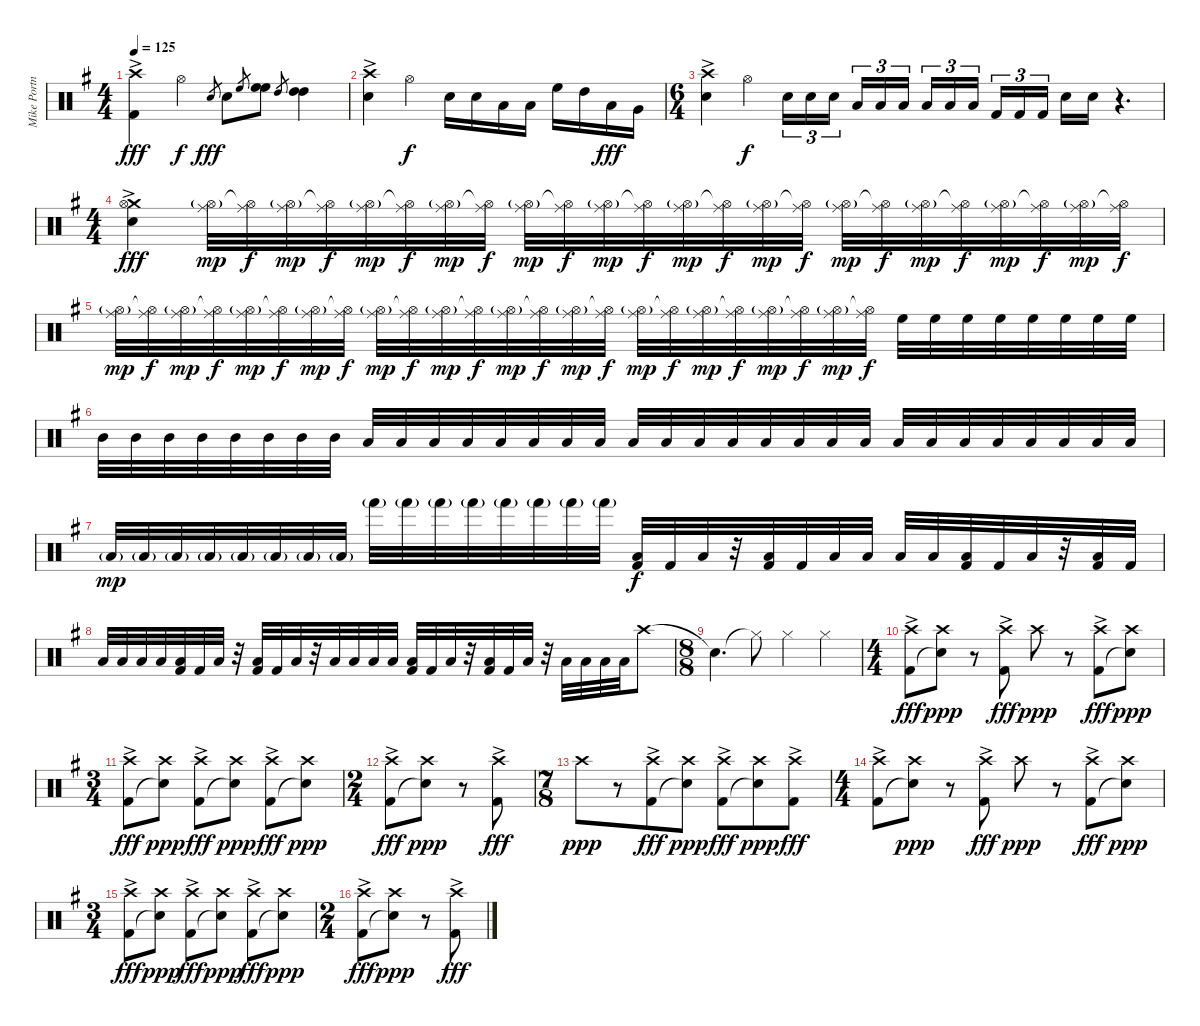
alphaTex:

\track ("Mike Portnoy - Drums" "Mike Portn") {instrument percussion}
\staff {score}
\articulation defaults
\ts (4 4)
\tempo 125
\clef neutral
\ks g
("Crash high (hit)"{ac} "Kick (hit) 2").4{dy fff volume 14} "Hi-Hat (open)".4{dy f} "Electric Snare (hit)".8{gr dy fff} "Electric Snare (hit)".8 "High Floor Tom (hit)".8{gr} ("High Floor Tom (hit)" "High Floor Tom (hit)").8 "High Tom (hit)".8{gr} ("High Tom (hit)" "High Tom (hit)").4 |
("Crash high (hit)"{ac} "Snare (hit) 2").4 "Hi-Hat (open)".4{dy f} "Electric Snare (hit)".16 "Electric Snare (hit)".16 "Low Tom (hit)".16 "Low Tom (hit)".16 "High Floor Tom (hit)".16 "High Tom (hit)".16 "Low Tom (hit)".16{dy fff} "Very Low Tom (hit)".16 |
\ts (6 4)
("Crash high (hit)"{ac} "Snare (hit) 2").4 "Hi-Hat (open)".4{dy f} "Snare (hit) 2".16{tu (3 2)} "Snare (hit) 2".16{tu (3 2)} "Snare (hit) 2".16{tu (3 2) beam splitsecondary} "Low Tom (hit)".16{tu (3 2)} "Low Tom (hit)".16{tu (3 2)} "Low Tom (hit)".16{tu (3 2)} "Low Floor Tom (hit)".16{tu (3 2)} "Low Floor Tom (hit)".16{tu (3 2)} "Low Floor Tom (hit)".16{tu (3 2) beam splitsecondary} "Kick (hit) 2".16{tu (3 2)} "Kick (hit) 2".16{tu (3 2)} "Kick (hit) 2".16{tu (3 2) beam splitsecondary} "Snare (hit) 2".16 "Snare (hit) 2".16 r.4{d} |
\ts (4 4)
("Crash medium (hit)"{ac} "Hi-Hat (open)" "Snare (hit) 2").4{dy fff} ("Ride (middle)" "Hi-Hat (open)"{g}).32{dy mp volume 10} ("Ride (middle)" "Hi-Hat (open)"{t}).32{dy f} ("Ride (middle)" "Hi-Hat (open)"{g}).32{dy mp} ("Ride (middle)" "Hi-Hat (open)"{t}).32{dy f} ("Ride (middle)" "Hi-Hat (open)"{g}).32{dy mp} ("Ride (middle)" "Hi-Hat (open)"{t}).32{dy f} ("Ride (middle)" "Hi-Hat (open)"{g}).32{dy mp} ("Ride (middle)" "Hi-Hat (open)"{t}).32{dy f} ("Ride (middle)" "Hi-Hat (open)"{g}).32{dy mp} ("Ride (middle)" "Hi-Hat (open)"{t}).32{dy f} ("Ride (middle)" "Hi-Hat (open)"{g}).32{dy mp} ("Ride (middle)" "Hi-Hat (open)"{t}).32{dy f} ("Ride (middle)" "Hi-Hat (open)"{g}).32{dy mp} ("Ride (middle)" "Hi-Hat (open)"{t}).32{dy f} ("Ride (middle)" "Hi-Hat (open)"{g}).32{dy mp} ("Ride (middle)" "Hi-Hat (open)"{t}).32{dy f} ("Ride (middle)" "Hi-Hat (open)"{g}).32{dy mp} ("Ride (middle)" "Hi-Hat (open)"{t}).32{dy f} ("Ride (middle)" "Hi-Hat (open)"{g}).32{dy mp} ("Ride (middle)" "Hi-Hat (open)"{t}).32{dy f} ("Ride (middle)" "Hi-Hat (open)"{g}).32{dy mp} ("Ride (middle)" "Hi-Hat (open)"{t}).32{dy f} ("Ride (middle)" "Hi-Hat (open)"{g}).32{dy mp} ("Ride (middle)" "Hi-Hat (open)"{t}).32{dy f} |
("Ride (middle)" "Hi-Hat (open)"{g}).32{dy mp} ("Ride (middle)" "Hi-Hat (open)"{t}).32{dy f} ("Ride (middle)" "Hi-Hat (open)"{g}).32{dy mp} ("Ride (middle)" "Hi-Hat (open)"{t}).32{dy f} ("Ride (middle)" "Hi-Hat (open)"{g}).32{dy mp} ("Ride (middle)" "Hi-Hat (open)"{t}).32{dy f} ("Ride (middle)" "Hi-Hat (open)"{g}).32{dy mp} ("Ride (middle)" "Hi-Hat (open)"{t}).32{dy f} ("Ride (middle)" "Hi-Hat (open)"{g}).32{dy mp} ("Ride (middle)" "Hi-Hat (open)"{t}).32{dy f} ("Ride (middle)" "Hi-Hat (open)"{g}).32{dy mp} ("Ride (middle)" "Hi-Hat (open)"{t}).32{dy f} ("Ride (middle)" "Hi-Hat (open)"{g}).32{dy mp} ("Ride (middle)" "Hi-Hat (open)"{t}).32{dy f} ("Ride (middle)" "Hi-Hat (open)"{g}).32{dy mp} ("Ride (middle)" "Hi-Hat (open)"{t}).32{dy f} ("Ride (middle)" "Hi-Hat (open)"{g}).32{dy mp} ("Ride (middle)" "Hi-Hat (open)"{t}).32{dy f} ("Ride (middle)" "Hi-Hat (open)"{g}).32{dy mp} ("Ride (middle)" "Hi-Hat (open)"{t}).32{dy f} ("Ride (middle)" "Hi-Hat (open)"{g}).32{dy mp} ("Ride (middle)" "Hi-Hat (open)"{t}).32{dy f} ("Ride (middle)" "Hi-Hat (open)"{g}).32{dy mp} ("Ride (middle)" "Hi-Hat (open)"{t}).32{dy f} "High Floor Tom (hit)".32 "High Floor Tom (hit)".32 "High Floor Tom (hit)".32 "High Floor Tom (hit)".32 "High Floor Tom (hit)".32 "High Floor Tom (hit)".32 "High Floor Tom (hit)".32 "High Floor Tom (hit)".32 |
"Mid Tom (hit)".32 "Mid Tom (hit)".32 "Mid Tom (hit)".32 "Mid Tom (hit)".32 "Mid Tom (hit)".32 "Mid Tom (hit)".32 "Mid Tom (hit)".32 "Mid Tom (hit)".32 "Low Tom (hit)".32 "Low Tom (hit)".32 "Low Tom (hit)".32 "Low Tom (hit)".32 "Low Tom (hit)".32 "Low Tom (hit)".32 "Low Tom (hit)".32 "Low Tom (hit)".32 "Low Floor Tom (hit)".32 "Low Floor Tom (hit)".32 "Low Floor Tom (hit)".32 "Low Floor Tom (hit)".32 "Low Floor Tom (hit)".32 "Low Floor Tom (hit)".32 "Low Floor Tom (hit)".32 "Low Floor Tom (hit)".32 "Low Floor Tom (hit)".32 "Low Floor Tom (hit)".32 "Low Floor Tom (hit)".32 "Low Floor Tom (hit)".32 "Low Floor Tom (hit)".32 "Low Floor Tom (hit)".32 "Low Floor Tom (hit)".32 "Low Floor Tom (hit)".32 |
"Low Floor Tom (hit)"{g}.32{dy mp} "Low Floor Tom (hit)"{g}.32 "Low Floor Tom (hit)"{g}.32 "Low Floor Tom (hit)"{g}.32 "Low Floor Tom (hit)"{g}.32 "Low Floor Tom (hit)"{g}.32 "Low Floor Tom (hit)"{g}.32 "Low Floor Tom (hit)"{g}.32 "Hand (hit)"{g}.32 "Hand (hit)"{g}.32 "Hand (hit)"{g}.32 "Hand (hit)"{g}.32 "Hand (hit)"{g}.32 "Hand (hit)"{g}.32 "Hand (hit)"{g}.32 "Hand (hit)"{g}.32 ("Low Floor Tom (hit)" "Kick (hit) 2").32{dy f} "Kick (hit) 2".32 "Low Floor Tom (hit)".32 r.32 ("Low Floor Tom (hit)" "Kick (hit) 2").32 "Kick (hit) 2".32 "Low Floor Tom (hit)".32 "Low Floor Tom (hit)".32 "Low Floor Tom (hit)".32 "Low Floor Tom (hit)".32 ("Low Floor Tom (hit)" "Kick (hit) 2").32 "Kick (hit) 2".32 "Low Floor Tom (hit)".32 r.32 ("Low Floor Tom (hit)" "Kick (hit) 2").32 "Kick (hit) 2".32 |
"Low Floor Tom (hit)".32 "Low Floor Tom (hit)".32 "Low Floor Tom (hit)".32 "Low Floor Tom (hit)".32 ("Low Floor Tom (hit)" "Kick (hit) 2").32 "Kick (hit) 2".32 "Low Floor Tom (hit)".32 r.32 ("Low Floor Tom (hit)" "Kick (hit) 2").32 "Kick (hit) 2".32 "Low Floor Tom (hit)".32 r.32 "Low Floor Tom (hit)".32 "Low Floor Tom (hit)".32 "Low Floor Tom (hit)".32 "Low Floor Tom (hit)".32 ("Low Floor Tom (hit)" "Kick (hit) 2").32 "Kick (hit) 2".32 "Low Floor Tom (hit)".32 r.32 ("Low Floor Tom (hit)" "Kick (hit) 2").32 "Kick (hit) 2".32 "Low Floor Tom (hit)".32 r.32 "Low Floor Tom (hit)".32 "Low Floor Tom (hit)".32 "Low Floor Tom (hit)".32 "Low Floor Tom (hit)".32 "Crash high (hit)".8{volume 13} |
\ts (8 8)
"Snare (hit)"{t}.4{d} "Hi-Hat (closed)"{t}.8 "Hi-Hat (closed)".4 "Hi-Hat (closed)".4 |
\ts (4 4)
("Crash high (hit)"{ac} "Kick (hit) 2").8{dy fff} ("Crash high (hit)" "Snare (hit)"{t}).8{dy ppp} r.8 ("Crash high (hit)"{ac} "Kick (hit) 2").8{dy fff} "Crash high (hit)".8{dy ppp} r.8 ("Crash high (hit)"{ac} "Kick (hit) 2").8{dy fff} ("Crash high (hit)" "Snare (hit)"{t}).8{dy ppp} |
\ts (3 4)
("Crash high (hit)"{ac} "Kick (hit) 2").8{dy fff} ("Crash high (hit)" "Snare (hit)"{t}).8{dy ppp} ("Crash high (hit)"{ac} "Kick (hit) 2").8{dy fff} ("Crash high (hit)" "Snare (hit)"{t}).8{dy ppp} ("Crash high (hit)"{ac} "Kick (hit) 2").8{dy fff} ("Crash high (hit)" "Snare (hit)"{t}).8{dy ppp} |
\ts (2 4)
("Crash high (hit)"{ac} "Kick (hit) 2").8{dy fff} ("Crash high (hit)" "Snare (hit)"{t}).8{dy ppp} r.8 ("Crash high (hit)"{ac} "Kick (hit) 2").8{dy fff} |
\ts (7 8)
"Crash high (hit)".8{dy ppp} r.8 ("Crash high (hit)"{ac} "Kick (hit) 2").8{dy fff} ("Crash high (hit)" "Snare (hit)"{t}).8{dy ppp} ("Crash high (hit)"{ac} "Kick (hit) 2").8{dy fff} ("Crash high (hit)" "Snare (hit)"{t}).8{dy ppp} ("Crash high (hit)"{ac} "Kick (hit) 2").8{dy fff} |
\ts (4 4)
("Crash high (hit)"{ac} "Kick (hit) 2").8 ("Crash high (hit)" "Snare (hit)"{t}).8{dy ppp} r.8 ("Crash high (hit)"{ac} "Kick (hit) 2").8{dy fff} "Crash high (hit)".8{dy ppp} r.8 ("Crash high (hit)"{ac} "Kick (hit) 2").8{dy fff} ("Crash high (hit)" "Snare (hit)"{t}).8{dy ppp} |
\ts (3 4)
("Crash high (hit)"{ac} "Kick (hit) 2").8{dy fff} ("Crash high (hit)" "Snare (hit)"{t}).8{dy ppp} ("Crash high (hit)"{ac} "Kick (hit) 2").8{dy fff} ("Crash high (hit)" "Snare (hit)"{t}).8{dy ppp} ("Crash high (hit)"{ac} "Kick (hit) 2").8{dy fff} ("Crash high (hit)" "Snare (hit)"{t}).8{dy ppp} |
\ts (2 4)
("Crash high (hit)"{ac} "Kick (hit) 2").8{dy fff} ("Crash high (hit)" "Snare (hit)"{t}).8{dy ppp} r.8 ("Crash high (hit)"{ac} "Kick (hit) 2").8{dy fff}
